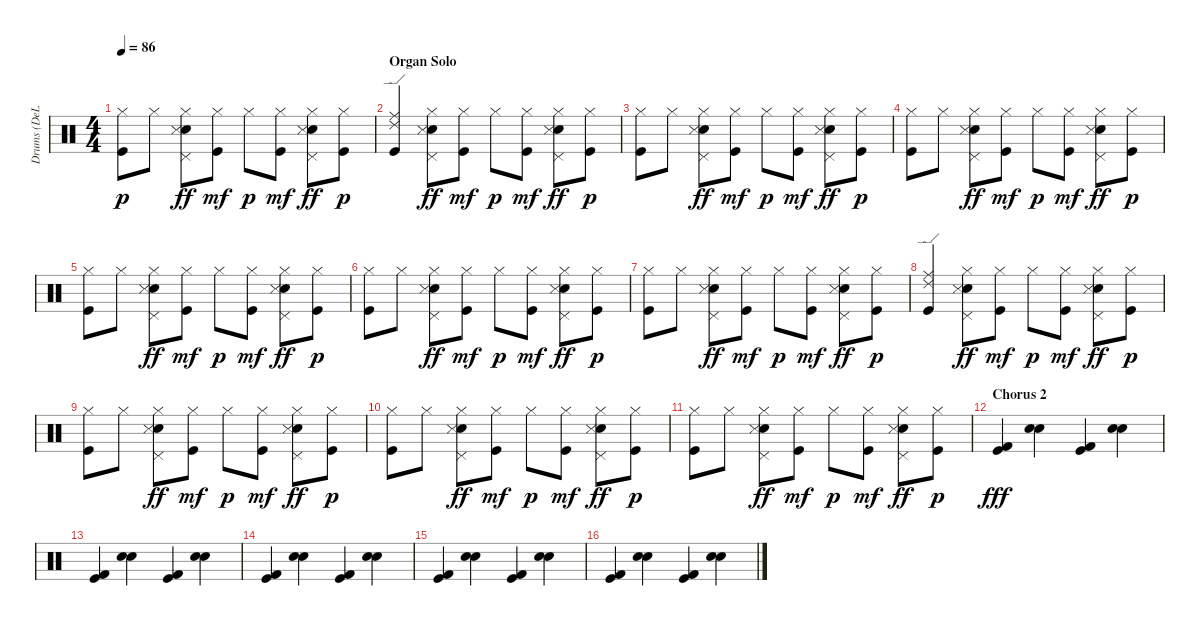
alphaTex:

\track ("Drums (DeLorenzo)" "Drums (DeL") {instrument percussion}
\staff {score}
\articulation defaults
\ts (4 4)
\tempo 86
\clef neutral
\ks c
("Hi-Hat (closed)" "Kick (hit)").8{dy p} "Hi-Hat (closed)".8 ("Hi-Hat (closed)" "Pedal Hi-Hat (hit)" "Electric Snare (hit)" "Snare (side stick) 3").8{dy ff} ("Hi-Hat (closed)" "Kick (hit)").8{dy mf} "Hi-Hat (closed)".8{dy p} ("Hi-Hat (closed)" "Kick (hit)").8{dy mf} ("Hi-Hat (closed)" "Pedal Hi-Hat (hit)" "Electric Snare (hit)" "Snare (side stick) 3").8{dy ff} ("Hi-Hat (closed)" "Kick (hit)").8{dy p} |
\section ("" "Organ Solo")
("Ride (middle)" "Ride (edge) 2" "Kick (hit)").4 ("Hi-Hat (closed)" "Pedal Hi-Hat (hit)" "Electric Snare (hit)" "Snare (side stick) 3").8{dy ff} ("Hi-Hat (closed)" "Kick (hit)").8{dy mf} "Hi-Hat (closed)".8{dy p} ("Hi-Hat (closed)" "Kick (hit)").8{dy mf} ("Hi-Hat (closed)" "Pedal Hi-Hat (hit)" "Electric Snare (hit)" "Snare (side stick) 3").8{dy ff} ("Hi-Hat (closed)" "Kick (hit)").8{dy p} |
("Hi-Hat (closed)" "Kick (hit)").8 "Hi-Hat (closed)".8 ("Hi-Hat (closed)" "Pedal Hi-Hat (hit)" "Electric Snare (hit)" "Snare (side stick) 3").8{dy ff} ("Hi-Hat (closed)" "Kick (hit)").8{dy mf} "Hi-Hat (closed)".8{dy p} ("Hi-Hat (closed)" "Kick (hit)").8{dy mf} ("Hi-Hat (closed)" "Pedal Hi-Hat (hit)" "Electric Snare (hit)" "Snare (side stick) 3").8{dy ff} ("Hi-Hat (closed)" "Kick (hit)").8{dy p} |
("Hi-Hat (closed)" "Kick (hit)").8 "Hi-Hat (closed)".8 ("Hi-Hat (closed)" "Pedal Hi-Hat (hit)" "Electric Snare (hit)" "Snare (side stick) 3").8{dy ff} ("Hi-Hat (closed)" "Kick (hit)").8{dy mf} "Hi-Hat (closed)".8{dy p} ("Hi-Hat (closed)" "Kick (hit)").8{dy mf} ("Hi-Hat (closed)" "Pedal Hi-Hat (hit)" "Electric Snare (hit)" "Snare (side stick) 3").8{dy ff} ("Hi-Hat (closed)" "Kick (hit)").8{dy p} |
("Hi-Hat (closed)" "Kick (hit)").8 "Hi-Hat (closed)".8 ("Hi-Hat (closed)" "Pedal Hi-Hat (hit)" "Electric Snare (hit)" "Snare (side stick) 3").8{dy ff} ("Hi-Hat (closed)" "Kick (hit)").8{dy mf} "Hi-Hat (closed)".8{dy p} ("Hi-Hat (closed)" "Kick (hit)").8{dy mf} ("Hi-Hat (closed)" "Pedal Hi-Hat (hit)" "Electric Snare (hit)" "Snare (side stick) 3").8{dy ff} ("Hi-Hat (closed)" "Kick (hit)").8{dy p} |
("Hi-Hat (closed)" "Kick (hit)").8 "Hi-Hat (closed)".8 ("Hi-Hat (closed)" "Pedal Hi-Hat (hit)" "Electric Snare (hit)" "Snare (side stick) 3").8{dy ff} ("Hi-Hat (closed)" "Kick (hit)").8{dy mf} "Hi-Hat (closed)".8{dy p} ("Hi-Hat (closed)" "Kick (hit)").8{dy mf} ("Hi-Hat (closed)" "Pedal Hi-Hat (hit)" "Electric Snare (hit)" "Snare (side stick) 3").8{dy ff} ("Hi-Hat (closed)" "Kick (hit)").8{dy p} |
("Hi-Hat (closed)" "Kick (hit)").8 "Hi-Hat (closed)".8 ("Hi-Hat (closed)" "Pedal Hi-Hat (hit)" "Electric Snare (hit)" "Snare (side stick) 3").8{dy ff} ("Hi-Hat (closed)" "Kick (hit)").8{dy mf} "Hi-Hat (closed)".8{dy p} ("Hi-Hat (closed)" "Kick (hit)").8{dy mf} ("Hi-Hat (closed)" "Pedal Hi-Hat (hit)" "Electric Snare (hit)" "Snare (side stick) 3").8{dy ff} ("Hi-Hat (closed)" "Kick (hit)").8{dy p} |
("Ride (middle)" "Ride (edge) 2" "Kick (hit)").4 ("Hi-Hat (closed)" "Pedal Hi-Hat (hit)" "Electric Snare (hit)" "Snare (side stick) 3").8{dy ff} ("Hi-Hat (closed)" "Kick (hit)").8{dy mf} "Hi-Hat (closed)".8{dy p} ("Hi-Hat (closed)" "Kick (hit)").8{dy mf} ("Hi-Hat (closed)" "Pedal Hi-Hat (hit)" "Electric Snare (hit)" "Snare (side stick) 3").8{dy ff} ("Hi-Hat (closed)" "Kick (hit)").8{dy p} |
("Hi-Hat (closed)" "Kick (hit)").8 "Hi-Hat (closed)".8 ("Hi-Hat (closed)" "Pedal Hi-Hat (hit)" "Electric Snare (hit)" "Snare (side stick) 3").8{dy ff} ("Hi-Hat (closed)" "Kick (hit)").8{dy mf} "Hi-Hat (closed)".8{dy p} ("Hi-Hat (closed)" "Kick (hit)").8{dy mf} ("Hi-Hat (closed)" "Pedal Hi-Hat (hit)" "Electric Snare (hit)" "Snare (side stick) 3").8{dy ff} ("Hi-Hat (closed)" "Kick (hit)").8{dy p} |
("Hi-Hat (closed)" "Kick (hit)").8 "Hi-Hat (closed)".8 ("Hi-Hat (closed)" "Pedal Hi-Hat (hit)" "Electric Snare (hit)" "Snare (side stick) 3").8{dy ff} ("Hi-Hat (closed)" "Kick (hit)").8{dy mf} "Hi-Hat (closed)".8{dy p} ("Hi-Hat (closed)" "Kick (hit)").8{dy mf} ("Hi-Hat (closed)" "Pedal Hi-Hat (hit)" "Electric Snare (hit)" "Snare (side stick) 3").8{dy ff} ("Hi-Hat (closed)" "Kick (hit)").8{dy p} |
("Hi-Hat (closed)" "Kick (hit)").8 "Hi-Hat (closed)".8 ("Hi-Hat (closed)" "Pedal Hi-Hat (hit)" "Electric Snare (hit)" "Snare (side stick) 3").8{dy ff} ("Hi-Hat (closed)" "Kick (hit)").8{dy mf} "Hi-Hat (closed)".8{dy p} ("Hi-Hat (closed)" "Kick (hit)").8{dy mf} ("Hi-Hat (closed)" "Pedal Hi-Hat (hit)" "Electric Snare (hit)" "Snare (side stick) 3").8{dy ff} ("Hi-Hat (closed)" "Kick (hit)").8{dy p} |
\section ("" "Chorus 2")
("Kick (hit)" "Kick (hit) 2").4{dy fff} ("Snare (hit) 2" "Electric Snare (hit)").4 ("Kick (hit)" "Kick (hit) 2").4 ("Snare (hit) 2" "Electric Snare (hit)").4 |
("Kick (hit)" "Kick (hit) 2").4 ("Snare (hit) 2" "Electric Snare (hit)").4 ("Kick (hit)" "Kick (hit) 2").4 ("Snare (hit) 2" "Electric Snare (hit)").4 |
("Kick (hit)" "Kick (hit) 2").4 ("Snare (hit) 2" "Electric Snare (hit)").4 ("Kick (hit)" "Kick (hit) 2").4 ("Snare (hit) 2" "Electric Snare (hit)").4 |
("Kick (hit)" "Kick (hit) 2").4 ("Snare (hit) 2" "Electric Snare (hit)").4 ("Kick (hit)" "Kick (hit) 2").4 ("Snare (hit) 2" "Electric Snare (hit)").4 |
("Kick (hit)" "Kick (hit) 2").4 ("Snare (hit) 2" "Electric Snare (hit)").4 ("Kick (hit)" "Kick (hit) 2").4 ("Snare (hit) 2" "Electric Snare (hit)").4
